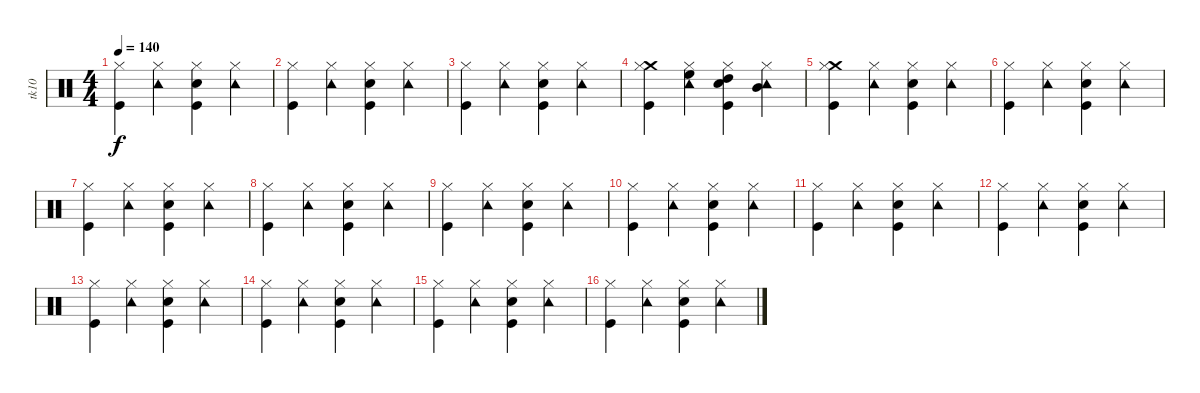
\track ("tk10" "tk10") {instrument percussion}
\staff {score}
\articulation defaults
\ts (4 4)
\tempo 140
\clef neutral
\ks c
("Hi-Hat (closed)" "Kick (hit)").4{dy f} ("Tambourine (hit)" "Hi-Hat (closed)").4 ("Electric Snare (hit)" "Hi-Hat (closed)" "Kick (hit)").4 ("Hi-Hat (closed)" "Tambourine (hit)").4 |
("Hi-Hat (closed)" "Kick (hit)").4 ("Tambourine (hit)" "Hi-Hat (closed)").4 ("Electric Snare (hit)" "Hi-Hat (closed)" "Kick (hit)").4 ("Hi-Hat (closed)" "Tambourine (hit)").4 |
("Hi-Hat (closed)" "Kick (hit)").4 ("Tambourine (hit)" "Hi-Hat (closed)").4 ("Electric Snare (hit)" "Hi-Hat (closed)" "Kick (hit)").4 ("Hi-Hat (closed)" "Tambourine (hit)").4 |
("Crash medium (hit)" "Hi-Hat (closed)" "Kick (hit)").4 ("High Floor Tom (hit)" "Tambourine (hit)" "Hi-Hat (closed)").4 ("High Tom (hit)" "Electric Snare (hit)" "Hi-Hat (closed)" "Kick (hit)").4 ("Mid Tom (hit)" "Hi-Hat (closed)" "Tambourine (hit)").4 |
("Crash medium (hit)" "Hi-Hat (closed)" "Kick (hit)").4 ("Tambourine (hit)" "Hi-Hat (closed)").4 ("Electric Snare (hit)" "Hi-Hat (closed)" "Kick (hit)").4 ("Hi-Hat (closed)" "Tambourine (hit)").4 |
("Hi-Hat (closed)" "Kick (hit)").4 ("Tambourine (hit)" "Hi-Hat (closed)").4 ("Electric Snare (hit)" "Hi-Hat (closed)" "Kick (hit)").4 ("Hi-Hat (closed)" "Tambourine (hit)").4 |
("Hi-Hat (closed)" "Kick (hit)").4 ("Tambourine (hit)" "Hi-Hat (closed)").4 ("Electric Snare (hit)" "Hi-Hat (closed)" "Kick (hit)").4 ("Hi-Hat (closed)" "Tambourine (hit)").4 |
("Hi-Hat (closed)" "Kick (hit)").4 ("Tambourine (hit)" "Hi-Hat (closed)").4 ("Electric Snare (hit)" "Hi-Hat (closed)" "Kick (hit)").4 ("Hi-Hat (closed)" "Tambourine (hit)").4 |
("Hi-Hat (closed)" "Kick (hit)").4 ("Tambourine (hit)" "Hi-Hat (closed)").4 ("Electric Snare (hit)" "Hi-Hat (closed)" "Kick (hit)").4 ("Hi-Hat (closed)" "Tambourine (hit)").4 |
("Hi-Hat (closed)" "Kick (hit)").4 ("Tambourine (hit)" "Hi-Hat (closed)").4 ("Electric Snare (hit)" "Hi-Hat (closed)" "Kick (hit)").4 ("Hi-Hat (closed)" "Tambourine (hit)").4 |
("Hi-Hat (closed)" "Kick (hit)").4 ("Tambourine (hit)" "Hi-Hat (closed)").4 ("Electric Snare (hit)" "Hi-Hat (closed)" "Kick (hit)").4 ("Hi-Hat (closed)" "Tambourine (hit)").4 |
("Hi-Hat (closed)" "Kick (hit)").4 ("Tambourine (hit)" "Hi-Hat (closed)").4 ("Electric Snare (hit)" "Hi-Hat (closed)" "Kick (hit)").4 ("Hi-Hat (closed)" "Tambourine (hit)").4 |
("Hi-Hat (closed)" "Kick (hit)").4 ("Tambourine (hit)" "Hi-Hat (closed)").4 ("Electric Snare (hit)" "Hi-Hat (closed)" "Kick (hit)").4 ("Hi-Hat (closed)" "Tambourine (hit)").4 |
("Hi-Hat (closed)" "Kick (hit)").4 ("Tambourine (hit)" "Hi-Hat (closed)").4 ("Electric Snare (hit)" "Hi-Hat (closed)" "Kick (hit)").4 ("Hi-Hat (closed)" "Tambourine (hit)").4 |
("Hi-Hat (closed)" "Kick (hit)").4 ("Tambourine (hit)" "Hi-Hat (closed)").4 ("Electric Snare (hit)" "Hi-Hat (closed)" "Kick (hit)").4 ("Hi-Hat (closed)" "Tambourine (hit)").4 |
("Hi-Hat (closed)" "Kick (hit)").4 ("Tambourine (hit)" "Hi-Hat (closed)").4 ("Electric Snare (hit)" "Hi-Hat (closed)" "Kick (hit)").4 ("Hi-Hat (closed)" "Tambourine (hit)").4
